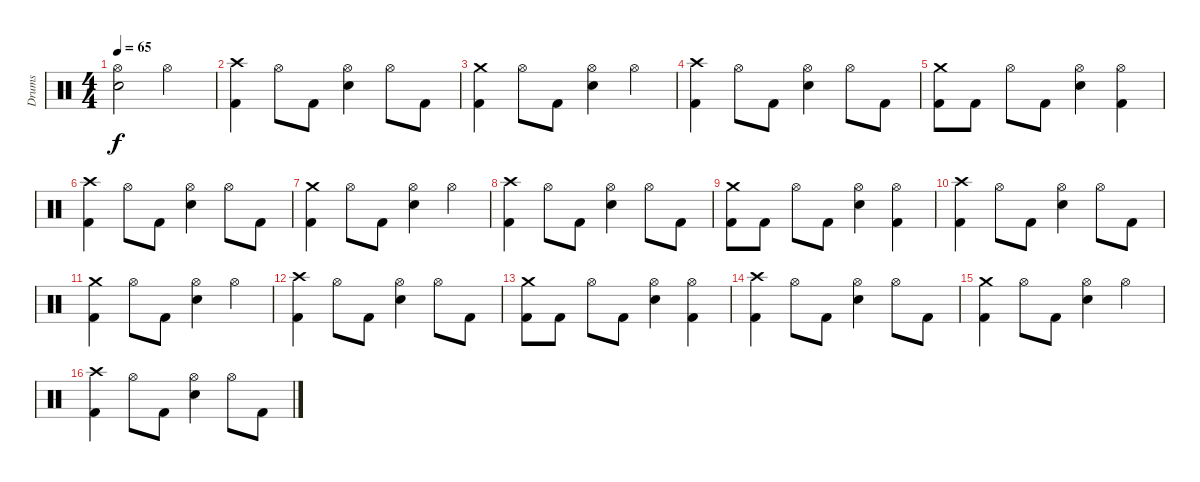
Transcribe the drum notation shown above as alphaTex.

\track ("Drums" "Drums") {instrument percussion}
\staff {score}
\articulation defaults
\ts (4 4)
\tempo 65
\clef neutral
\ks c
("Hi-Hat (open)" "Snare (hit) 2").2{dy f} "Hi-Hat (open)".2 |
("Crash high (hit)" "Kick (hit) 2").4 "Hi-Hat (open)".8 "Kick (hit) 2".8 ("Hi-Hat (open)" "Snare (hit) 2").4 "Hi-Hat (open)".8 "Kick (hit) 2".8 |
("Crash medium (hit)" "Kick (hit) 2").4 "Hi-Hat (open)".8 "Kick (hit) 2".8 ("Hi-Hat (open)" "Snare (hit) 2").4 "Hi-Hat (open)".4 |
("Crash high (hit)" "Kick (hit) 2").4 "Hi-Hat (open)".8 "Kick (hit) 2".8 ("Hi-Hat (open)" "Snare (hit) 2").4 "Hi-Hat (open)".8 "Kick (hit) 2".8 |
("Crash medium (hit)" "Kick (hit) 2").8 "Kick (hit) 2".8 "Hi-Hat (open)".8 "Kick (hit) 2".8 ("Hi-Hat (open)" "Snare (hit) 2").4 ("Hi-Hat (open)" "Kick (hit) 2").4 |
("Crash high (hit)" "Kick (hit) 2").4 "Hi-Hat (open)".8 "Kick (hit) 2".8 ("Hi-Hat (open)" "Snare (hit) 2").4 "Hi-Hat (open)".8 "Kick (hit) 2".8 |
("Crash medium (hit)" "Kick (hit) 2").4 "Hi-Hat (open)".8 "Kick (hit) 2".8 ("Hi-Hat (open)" "Snare (hit) 2").4 "Hi-Hat (open)".4 |
("Crash high (hit)" "Kick (hit) 2").4 "Hi-Hat (open)".8 "Kick (hit) 2".8 ("Hi-Hat (open)" "Snare (hit) 2").4 "Hi-Hat (open)".8 "Kick (hit) 2".8 |
("Crash medium (hit)" "Kick (hit) 2").8 "Kick (hit) 2".8 "Hi-Hat (open)".8 "Kick (hit) 2".8 ("Hi-Hat (open)" "Snare (hit) 2").4 ("Hi-Hat (open)" "Kick (hit) 2").4 |
("Crash high (hit)" "Kick (hit) 2").4 "Hi-Hat (open)".8 "Kick (hit) 2".8 ("Hi-Hat (open)" "Snare (hit) 2").4 "Hi-Hat (open)".8 "Kick (hit) 2".8 |
("Crash medium (hit)" "Kick (hit) 2").4 "Hi-Hat (open)".8 "Kick (hit) 2".8 ("Hi-Hat (open)" "Snare (hit) 2").4 "Hi-Hat (open)".4 |
("Crash high (hit)" "Kick (hit) 2").4 "Hi-Hat (open)".8 "Kick (hit) 2".8 ("Hi-Hat (open)" "Snare (hit) 2").4 "Hi-Hat (open)".8 "Kick (hit) 2".8 |
("Crash medium (hit)" "Kick (hit) 2").8 "Kick (hit) 2".8 "Hi-Hat (open)".8 "Kick (hit) 2".8 ("Hi-Hat (open)" "Snare (hit) 2").4 ("Hi-Hat (open)" "Kick (hit) 2").4 |
("Crash high (hit)" "Kick (hit) 2").4 "Hi-Hat (open)".8 "Kick (hit) 2".8 ("Hi-Hat (open)" "Snare (hit) 2").4 "Hi-Hat (open)".8 "Kick (hit) 2".8 |
("Crash medium (hit)" "Kick (hit) 2").4 "Hi-Hat (open)".8 "Kick (hit) 2".8 ("Hi-Hat (open)" "Snare (hit) 2").4 "Hi-Hat (open)".4 |
("Crash high (hit)" "Kick (hit) 2").4 "Hi-Hat (open)".8 "Kick (hit) 2".8 ("Hi-Hat (open)" "Snare (hit) 2").4 "Hi-Hat (open)".8 "Kick (hit) 2".8
